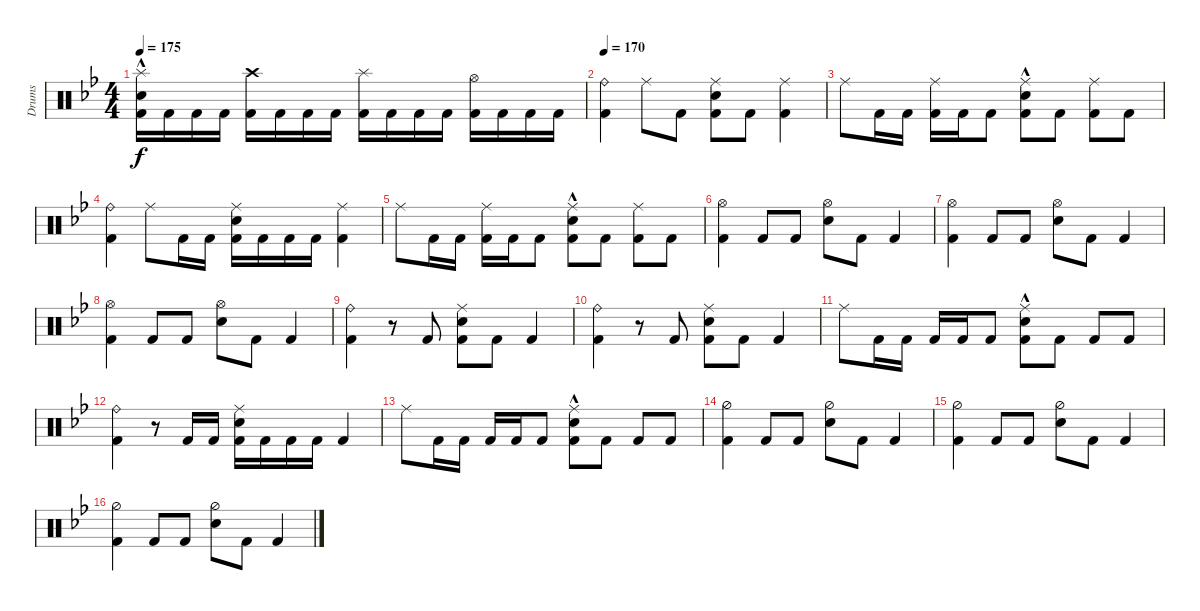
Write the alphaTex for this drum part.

\defaultSystemsLayout 4
\bracketExtendMode groupsimilarinstruments
\otherSystemsTrackNameOrientation horizontal
\track ("Drumkit" "Drums") {instrument percussion}
\staff {score}
\articulation defaults
\ts (4 4)
\tempo 175
\clef neutral
\scale
0.333333
\ks bb
("Kick (hit) 2"{acc forcenatural} "Snare (hit) 2"{hac acc forcenatural} "Splash (hit)"{acc forcenatural}).16{dy f} "Kick (hit) 2"{acc forcenatural}.16 "Kick (hit) 2"{acc forcenatural}.16 "Kick (hit) 2"{acc forcenatural}.16 ("Kick (hit) 2"{acc forcenatural} "Crash high (hit)"{acc forcenatural}).16 "Kick (hit) 2"{acc forcenatural}.16 "Kick (hit) 2"{acc forcenatural}.16 "Kick (hit) 2"{acc forcenatural}.16 ("Kick (hit) 2"{acc forcenatural} "Splash (hit)"{acc forcenatural}).16 "Kick (hit) 2"{acc forcenatural}.16 "Kick (hit) 2"{acc forcenatural}.16 "Kick (hit) 2"{acc forcenatural}.16 ("Kick (hit) 2"{acc forcenatural} "Hi-Hat (open)"{acc forcenatural}).16 "Kick (hit) 2"{acc forcenatural}.16 "Kick (hit) 2"{acc forcenatural}.16 "Kick (hit) 2"{acc forcenatural}.16 |
\tempo 170
\scale
0.333333 ("Ride (bell)"{acc forcenatural} "Kick (hit) 2"{acc forcenatural}).4 "Ride (middle)"{acc forcenatural}.8 "Kick (hit) 2"{acc forcenatural}.8 ("Kick (hit) 2"{acc forcenatural} "Snare (hit) 2"{acc forcenatural} "Ride (middle)"{acc forcenatural}).8 "Kick (hit) 2"{acc forcenatural}.8 ("Kick (hit) 2"{acc forcenatural} "Ride (middle)"{acc forcenatural}).4 |
\scale
0.333333 "Ride (middle)"{acc forcenatural}.8 "Kick (hit) 2"{acc forcenatural}.16 "Kick (hit) 2"{acc forcenatural}.16 ("Kick (hit) 2"{acc forcenatural} "Ride (middle)"{acc forcenatural}).16 "Kick (hit) 2"{acc forcenatural}.16 "Kick (hit) 2"{acc forcenatural}.8 ("Kick (hit) 2"{acc forcenatural} "Snare (hit) 2"{hac acc forcenatural} "Ride (middle)"{acc forcenatural}).8 "Kick (hit) 2"{acc forcenatural}.8 ("Kick (hit) 2"{acc forcenatural} "Ride (middle)"{acc forcenatural}).8 "Kick (hit) 2"{acc forcenatural}.8 |
\scale
0.333333 ("Ride (bell)"{acc forcenatural} "Kick (hit) 2"{acc forcenatural}).4 "Ride (middle)"{acc forcenatural}.8 "Kick (hit) 2"{acc forcenatural}.16 "Kick (hit) 2"{acc forcenatural}.16 ("Kick (hit) 2"{acc forcenatural} "Snare (hit) 2"{acc forcenatural} "Ride (middle)"{acc forcenatural}).16 "Kick (hit) 2"{acc forcenatural}.16 "Kick (hit) 2"{acc forcenatural}.16 "Kick (hit) 2"{acc forcenatural}.16 ("Kick (hit) 2"{acc forcenatural} "Ride (middle)"{acc forcenatural}).4 |
\scale
0.333333 "Ride (middle)"{acc forcenatural}.8 "Kick (hit) 2"{acc forcenatural}.16 "Kick (hit) 2"{acc forcenatural}.16 ("Kick (hit) 2"{acc forcenatural} "Ride (middle)"{acc forcenatural}).16 "Kick (hit) 2"{acc forcenatural}.16 "Kick (hit) 2"{acc forcenatural}.8 ("Kick (hit) 2"{acc forcenatural} "Snare (hit) 2"{hac acc forcenatural} "Ride (middle)"{acc forcenatural}).8 "Kick (hit) 2"{acc forcenatural}.8 ("Kick (hit) 2"{acc forcenatural} "Ride (middle)"{acc forcenatural}).8 "Kick (hit) 2"{acc forcenatural}.8 |
\scale
0.333333 ("Hi-Hat (open)"{acc forcenatural} "Kick (hit) 2"{acc forcenatural}).4 "Kick (hit) 2"{acc forcenatural}.8 "Kick (hit) 2"{acc forcenatural}.8 ("Snare (hit) 2"{acc forcenatural} "Hi-Hat (open)"{acc forcenatural}).8 "Kick (hit) 2"{acc forcenatural}.8 "Kick (hit) 2"{acc forcenatural}.4 |
("Hi-Hat (open)"{acc forcenatural} "Kick (hit) 2"{acc forcenatural}).4 "Kick (hit) 2"{acc forcenatural}.8 "Kick (hit) 2"{acc forcenatural}.8 ("Snare (hit) 2"{acc forcenatural} "Hi-Hat (open)"{acc forcenatural}).8 "Kick (hit) 2"{acc forcenatural}.8 "Kick (hit) 2"{acc forcenatural}.4 |
("Hi-Hat (open)"{acc forcenatural} "Kick (hit) 2"{acc forcenatural}).4 "Kick (hit) 2"{acc forcenatural}.8 "Kick (hit) 2"{acc forcenatural}.8 ("Snare (hit) 2"{acc forcenatural} "Hi-Hat (open)"{acc forcenatural}).8 "Kick (hit) 2"{acc forcenatural}.8 "Kick (hit) 2"{acc forcenatural}.4 |
("Ride (bell)"{acc forcenatural} "Kick (hit) 2"{acc forcenatural}).4 r.8 "Kick (hit) 2"{acc forcenatural}.8 ("Kick (hit) 2"{acc forcenatural} "Snare (hit) 2"{acc forcenatural} "Ride (middle)"{acc forcenatural}).8 "Kick (hit) 2"{acc forcenatural}.8 "Kick (hit) 2"{acc forcenatural}.4 |
("Ride (bell)"{acc forcenatural} "Kick (hit) 2"{acc forcenatural}).4 r.8 "Kick (hit) 2"{acc forcenatural}.8 ("Kick (hit) 2"{acc forcenatural} "Snare (hit) 2"{acc forcenatural} "Ride (middle)"{acc forcenatural}).8 "Kick (hit) 2"{acc forcenatural}.8 "Kick (hit) 2"{acc forcenatural}.4 |
"Ride (middle)"{acc forcenatural}.8 "Kick (hit) 2"{acc forcenatural}.16 "Kick (hit) 2"{acc forcenatural}.16 "Kick (hit) 2"{acc forcenatural}.16 "Kick (hit) 2"{acc forcenatural}.16 "Kick (hit) 2"{acc forcenatural}.8 ("Kick (hit) 2"{acc forcenatural} "Snare (hit) 2"{hac acc forcenatural} "Ride (middle)"{acc forcenatural}).8 "Kick (hit) 2"{acc forcenatural}.8 "Kick (hit) 2"{acc forcenatural}.8 "Kick (hit) 2"{acc forcenatural}.8 |
("Ride (bell)"{acc forcenatural} "Kick (hit) 2"{acc forcenatural}).4 r.8 "Kick (hit) 2"{acc forcenatural}.16 "Kick (hit) 2"{acc forcenatural}.16 ("Kick (hit) 2"{acc forcenatural} "Snare (hit) 2"{acc forcenatural} "Ride (middle)"{acc forcenatural}).16 "Kick (hit) 2"{acc forcenatural}.16 "Kick (hit) 2"{acc forcenatural}.16 "Kick (hit) 2"{acc forcenatural}.16 "Kick (hit) 2"{acc forcenatural}.4 |
"Ride (middle)"{acc forcenatural}.8 "Kick (hit) 2"{acc forcenatural}.16 "Kick (hit) 2"{acc forcenatural}.16 "Kick (hit) 2"{acc forcenatural}.16 "Kick (hit) 2"{acc forcenatural}.16 "Kick (hit) 2"{acc forcenatural}.8 ("Kick (hit) 2"{acc forcenatural} "Snare (hit) 2"{hac acc forcenatural} "Ride (middle)"{acc forcenatural}).8 "Kick (hit) 2"{acc forcenatural}.8 "Kick (hit) 2"{acc forcenatural}.8 "Kick (hit) 2"{acc forcenatural}.8 |
("Hi-Hat (half)"{acc forcenatural} "Kick (hit) 2"{acc forcenatural}).4 "Kick (hit) 2"{acc forcenatural}.8 "Kick (hit) 2"{acc forcenatural}.8 ("Snare (hit) 2"{acc forcenatural} "Hi-Hat (half)"{acc forcenatural}).8 "Kick (hit) 2"{acc forcenatural}.8 "Kick (hit) 2"{acc forcenatural}.4 |
("Hi-Hat (half)"{acc forcenatural} "Kick (hit) 2"{acc forcenatural}).4 "Kick (hit) 2"{acc forcenatural}.8 "Kick (hit) 2"{acc forcenatural}.8 ("Snare (hit) 2"{acc forcenatural} "Hi-Hat (half)"{acc forcenatural}).8 "Kick (hit) 2"{acc forcenatural}.8 "Kick (hit) 2"{acc forcenatural}.4 |
("Hi-Hat (half)"{acc forcenatural} "Kick (hit) 2"{acc forcenatural}).4 "Kick (hit) 2"{acc forcenatural}.8 "Kick (hit) 2"{acc forcenatural}.8 ("Snare (hit) 2"{acc forcenatural} "Hi-Hat (half)"{acc forcenatural}).8 "Kick (hit) 2"{acc forcenatural}.8 "Kick (hit) 2"{acc forcenatural}.4
